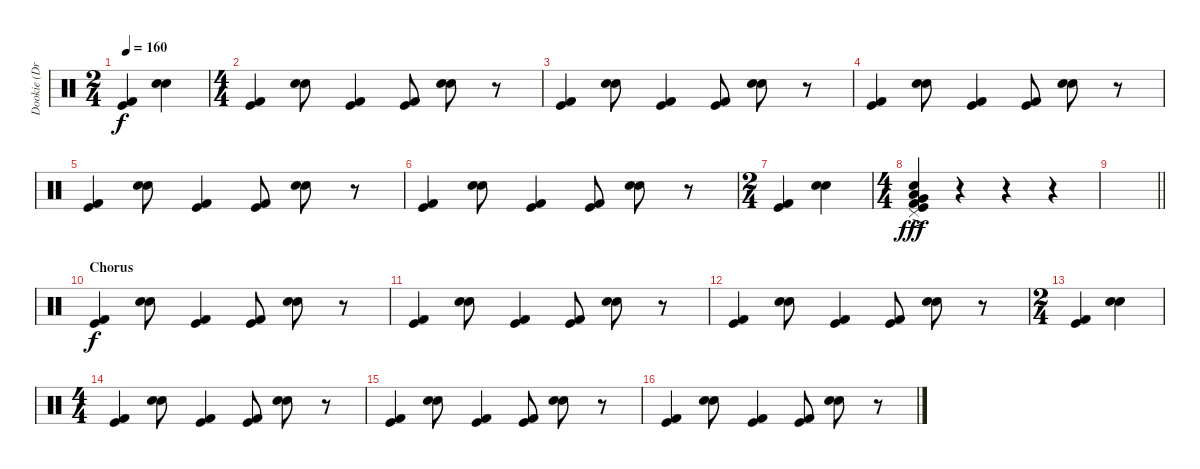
\track ("Dookie (Drums)" "Dookie (Dr") {instrument percussion}
\staff {score}
\articulation defaults
\ts (2 4)
\tempo 160
\clef neutral
\ks c
("Kick (hit) 2" "Kick (hit)").4{dy f} ("Electric Snare (hit)" "Electric Snare (hit)").4 |
\ts (4 4)
("Kick (hit) 2" "Kick (hit)").4 ("Electric Snare (hit)" "Electric Snare (hit)").8 ("Kick (hit) 2" "Kick (hit)").4 ("Kick (hit) 2" "Kick (hit)").8 ("Electric Snare (hit)" "Electric Snare (hit)").8 r.8 |
("Kick (hit) 2" "Kick (hit)").4 ("Electric Snare (hit)" "Electric Snare (hit)").8 ("Kick (hit) 2" "Kick (hit)").4 ("Kick (hit) 2" "Kick (hit)").8 ("Electric Snare (hit)" "Electric Snare (hit)").8 r.8 |
("Kick (hit) 2" "Kick (hit)").4 ("Electric Snare (hit)" "Electric Snare (hit)").8 ("Kick (hit) 2" "Kick (hit)").4 ("Kick (hit) 2" "Kick (hit)").8 ("Electric Snare (hit)" "Electric Snare (hit)").8 r.8 |
("Kick (hit) 2" "Kick (hit)").4 ("Electric Snare (hit)" "Electric Snare (hit)").8 ("Kick (hit) 2" "Kick (hit)").4 ("Kick (hit) 2" "Kick (hit)").8 ("Electric Snare (hit)" "Electric Snare (hit)").8 r.8 |
("Kick (hit) 2" "Kick (hit)").4 ("Electric Snare (hit)" "Electric Snare (hit)").8 ("Kick (hit) 2" "Kick (hit)").4 ("Kick (hit) 2" "Kick (hit)").8 ("Electric Snare (hit)" "Electric Snare (hit)").8 r.8 |
\ts (2 4)
("Kick (hit) 2" "Kick (hit)").4 ("Electric Snare (hit)" "Electric Snare (hit)").4 |
\ts (4 4)
("Electric Snare (hit)"{ac} "Very Low Tom (hit)"{ac} "Kick (hit)"{ac} "Kick (hit) 2"{ac} "Low Floor Tom (hit)"{ac} "Pedal Hi-Hat (hit)"{ac}).4{dy fff} r.4 r.4 r.4 |
\barLineRight lightlight
|
\section ("" "Chorus")
("Kick (hit) 2" "Kick (hit)").4{dy f} ("Electric Snare (hit)" "Electric Snare (hit)").8 ("Kick (hit) 2" "Kick (hit)").4 ("Kick (hit) 2" "Kick (hit)").8 ("Electric Snare (hit)" "Electric Snare (hit)").8 r.8 |
("Kick (hit) 2" "Kick (hit)").4 ("Electric Snare (hit)" "Electric Snare (hit)").8 ("Kick (hit) 2" "Kick (hit)").4 ("Kick (hit) 2" "Kick (hit)").8 ("Electric Snare (hit)" "Electric Snare (hit)").8 r.8 |
("Kick (hit) 2" "Kick (hit)").4 ("Electric Snare (hit)" "Electric Snare (hit)").8 ("Kick (hit) 2" "Kick (hit)").4 ("Kick (hit) 2" "Kick (hit)").8 ("Electric Snare (hit)" "Electric Snare (hit)").8 r.8 |
\ts (2 4)
("Kick (hit) 2" "Kick (hit)").4 ("Electric Snare (hit)" "Electric Snare (hit)").4 |
\ts (4 4)
("Kick (hit) 2" "Kick (hit)").4 ("Electric Snare (hit)" "Electric Snare (hit)").8 ("Kick (hit) 2" "Kick (hit)").4 ("Kick (hit) 2" "Kick (hit)").8 ("Electric Snare (hit)" "Electric Snare (hit)").8 r.8 |
("Kick (hit) 2" "Kick (hit)").4 ("Electric Snare (hit)" "Electric Snare (hit)").8 ("Kick (hit) 2" "Kick (hit)").4 ("Kick (hit) 2" "Kick (hit)").8 ("Electric Snare (hit)" "Electric Snare (hit)").8 r.8 |
("Kick (hit) 2" "Kick (hit)").4 ("Electric Snare (hit)" "Electric Snare (hit)").8 ("Kick (hit) 2" "Kick (hit)").4 ("Kick (hit) 2" "Kick (hit)").8 ("Electric Snare (hit)" "Electric Snare (hit)").8 r.8
